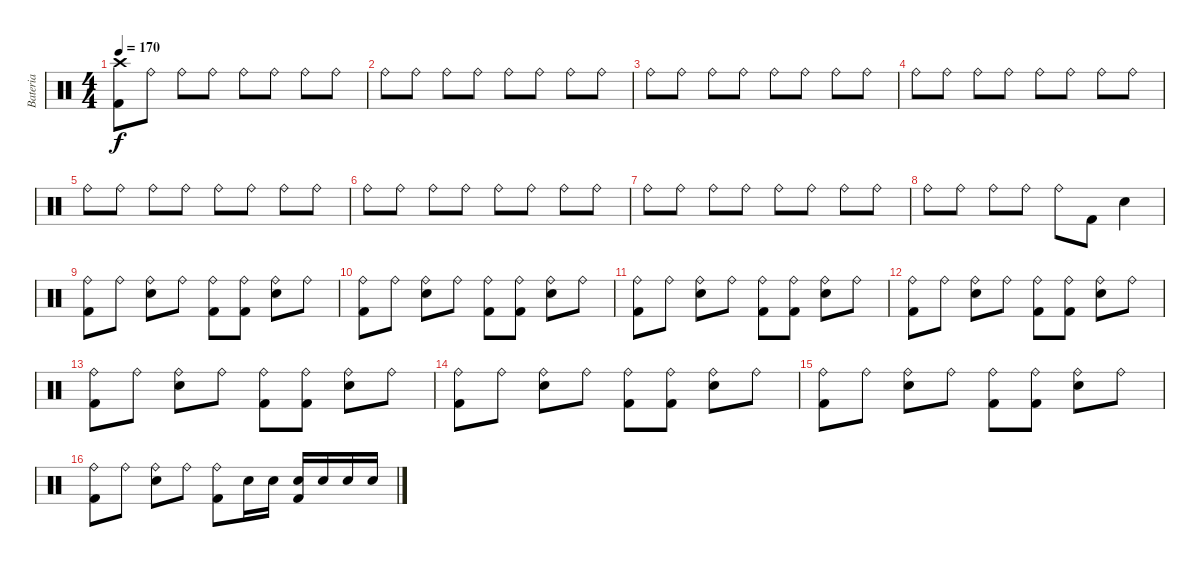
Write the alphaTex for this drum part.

\track ("Bateria" "Bateria") {instrument percussion}
\staff {score}
\articulation defaults
\ts (4 4)
\tempo 170
\clef neutral
\ks c
("Crash high (hit)" "Kick (hit) 2").8{dy f} "Ride (bell)".8{volume 8} "Ride (bell)".8 "Ride (bell)".8 "Ride (bell)".8 "Ride (bell)".8 "Ride (bell)".8 "Ride (bell)".8 |
"Ride (bell)".8 "Ride (bell)".8 "Ride (bell)".8 "Ride (bell)".8 "Ride (bell)".8 "Ride (bell)".8 "Ride (bell)".8 "Ride (bell)".8 |
"Ride (bell)".8 "Ride (bell)".8 "Ride (bell)".8 "Ride (bell)".8 "Ride (bell)".8 "Ride (bell)".8 "Ride (bell)".8 "Ride (bell)".8 |
"Ride (bell)".8 "Ride (bell)".8 "Ride (bell)".8 "Ride (bell)".8 "Ride (bell)".8 "Ride (bell)".8 "Ride (bell)".8 "Ride (bell)".8 |
"Ride (bell)".8 "Ride (bell)".8 "Ride (bell)".8 "Ride (bell)".8 "Ride (bell)".8 "Ride (bell)".8 "Ride (bell)".8 "Ride (bell)".8 |
"Ride (bell)".8 "Ride (bell)".8 "Ride (bell)".8 "Ride (bell)".8 "Ride (bell)".8 "Ride (bell)".8 "Ride (bell)".8 "Ride (bell)".8 |
"Ride (bell)".8 "Ride (bell)".8 "Ride (bell)".8 "Ride (bell)".8 "Ride (bell)".8 "Ride (bell)".8 "Ride (bell)".8 "Ride (bell)".8 |
"Ride (bell)".8 "Ride (bell)".8 "Ride (bell)".8 "Ride (bell)".8 "Ride (bell)".8 "Kick (hit) 2".8 "Snare (hit) 2".4 |
("Ride (bell)" "Kick (hit) 2").8{volume 13} "Ride (bell)".8 ("Ride (bell)" "Snare (hit) 2").8 "Ride (bell)".8 ("Ride (bell)" "Kick (hit) 2").8 ("Ride (bell)" "Kick (hit) 2").8 ("Ride (bell)" "Snare (hit) 2").8 "Ride (bell)".8 |
("Ride (bell)" "Kick (hit) 2").8 "Ride (bell)".8 ("Ride (bell)" "Snare (hit) 2").8 "Ride (bell)".8 ("Ride (bell)" "Kick (hit) 2").8 ("Ride (bell)" "Kick (hit) 2").8 ("Ride (bell)" "Snare (hit) 2").8 "Ride (bell)".8 |
("Ride (bell)" "Kick (hit) 2").8 "Ride (bell)".8 ("Ride (bell)" "Snare (hit) 2").8 "Ride (bell)".8 ("Ride (bell)" "Kick (hit) 2").8 ("Ride (bell)" "Kick (hit) 2").8 ("Ride (bell)" "Snare (hit) 2").8 "Ride (bell)".8 |
("Ride (bell)" "Kick (hit) 2").8 "Ride (bell)".8 ("Ride (bell)" "Snare (hit) 2").8 "Ride (bell)".8 ("Ride (bell)" "Kick (hit) 2").8 ("Ride (bell)" "Kick (hit) 2").8 ("Ride (bell)" "Snare (hit) 2").8 "Ride (bell)".8 |
("Ride (bell)" "Kick (hit) 2").8 "Ride (bell)".8 ("Ride (bell)" "Snare (hit) 2").8 "Ride (bell)".8 ("Ride (bell)" "Kick (hit) 2").8 ("Ride (bell)" "Kick (hit) 2").8 ("Ride (bell)" "Snare (hit) 2").8 "Ride (bell)".8 |
("Ride (bell)" "Kick (hit) 2").8 "Ride (bell)".8 ("Ride (bell)" "Snare (hit) 2").8 "Ride (bell)".8 ("Ride (bell)" "Kick (hit) 2").8 ("Ride (bell)" "Kick (hit) 2").8 ("Ride (bell)" "Snare (hit) 2").8 "Ride (bell)".8 |
("Ride (bell)" "Kick (hit) 2").8 "Ride (bell)".8 ("Ride (bell)" "Snare (hit) 2").8 "Ride (bell)".8 ("Ride (bell)" "Kick (hit) 2").8 ("Ride (bell)" "Kick (hit) 2").8 ("Ride (bell)" "Snare (hit) 2").8 "Ride (bell)".8 |
("Ride (bell)" "Kick (hit) 2").8 "Ride (bell)".8 ("Ride (bell)" "Snare (hit) 2").8 "Ride (bell)".8 ("Ride (bell)" "Kick (hit) 2").8 "Snare (hit) 2".16 "Snare (hit) 2".16 ("Snare (hit) 2" "Kick (hit) 2").16 "Snare (hit) 2".16 "Snare (hit) 2".16 "Snare (hit) 2".16
